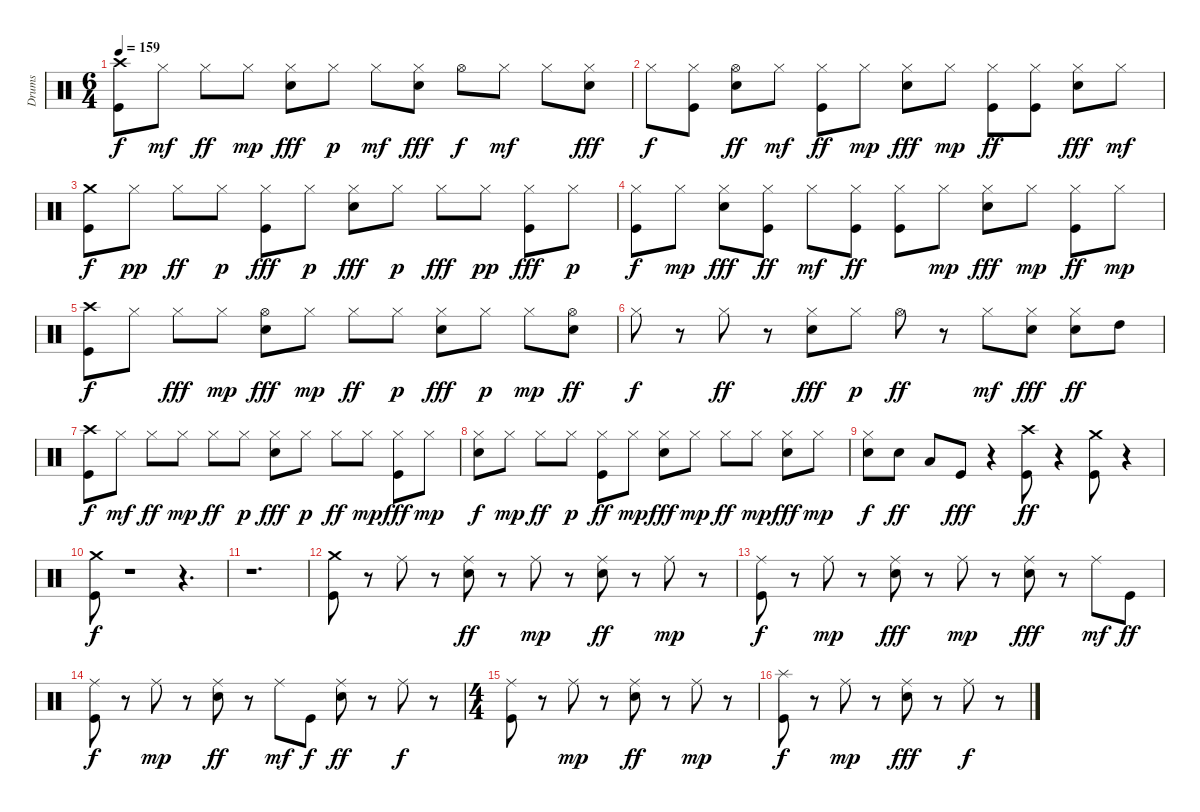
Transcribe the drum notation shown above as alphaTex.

\track ("Drums" "Drums") {instrument percussion}
\staff {score}
\articulation defaults
\ts (6 4)
\tempo 159
\clef neutral
\ks c
("Kick (hit)" "Crash high (hit)").8{dy f} "Hi-Hat (closed)".8{dy mf} "Hi-Hat (closed)".8{dy ff} "Hi-Hat (closed)".8{dy mp} ("Electric Snare (hit)" "Hi-Hat (closed)").8{dy fff} "Hi-Hat (closed)".8{dy p} "Hi-Hat (closed)".8{dy mf} ("Electric Snare (hit)" "Hi-Hat (closed)").8{dy fff} "Hi-Hat (open)".8{dy f} "Hi-Hat (closed)".8{dy mf} "Hi-Hat (closed)".8 ("Electric Snare (hit)" "Hi-Hat (closed)").8{dy fff} |
"Hi-Hat (closed)".8{dy f} ("Kick (hit)" "Hi-Hat (closed)").8 ("Electric Snare (hit)" "Hi-Hat (open)").8{dy ff} "Hi-Hat (closed)".8{dy mf} ("Kick (hit)" "Hi-Hat (closed)").8{dy ff} "Hi-Hat (closed)".8{dy mp} ("Electric Snare (hit)" "Hi-Hat (closed)").8{dy fff} "Hi-Hat (closed)".8{dy mp} ("Kick (hit)" "Hi-Hat (closed)").8{dy ff} ("Kick (hit)" "Hi-Hat (closed)").8 ("Electric Snare (hit)" "Hi-Hat (closed)").8{dy fff} "Hi-Hat (closed)".8{dy mf} |
("Kick (hit)" "Crash medium (hit)").8{dy f} "Hi-Hat (closed)".8{dy pp} "Hi-Hat (closed)".8{dy ff} "Hi-Hat (closed)".8{dy p} ("Kick (hit)" "Hi-Hat (closed)").8{dy fff} "Hi-Hat (closed)".8{dy p} ("Electric Snare (hit)" "Hi-Hat (closed)").8{dy fff} "Hi-Hat (closed)".8{dy p} "Hi-Hat (closed)".8{dy fff} "Hi-Hat (closed)".8{dy pp} ("Kick (hit)" "Hi-Hat (closed)").8{dy fff} "Hi-Hat (closed)".8{dy p} |
("Kick (hit)" "Hi-Hat (closed)").8{dy f} "Hi-Hat (closed)".8{dy mp} ("Electric Snare (hit)" "Hi-Hat (closed)").8{dy fff} ("Kick (hit)" "Hi-Hat (closed)").8{dy ff} "Hi-Hat (closed)".8{dy mf} ("Kick (hit)" "Hi-Hat (closed)").8{dy ff} ("Kick (hit)" "Hi-Hat (closed)").8 "Hi-Hat (closed)".8{dy mp} ("Electric Snare (hit)" "Hi-Hat (closed)").8{dy fff} "Hi-Hat (closed)".8{dy mp} ("Kick (hit)" "Hi-Hat (closed)").8{dy ff} "Hi-Hat (closed)".8{dy mp} |
("Kick (hit)" "Crash high (hit)").8{dy f} "Hi-Hat (closed)".8 "Hi-Hat (closed)".8{dy fff} "Hi-Hat (closed)".8{dy mp} ("Electric Snare (hit)" "Hi-Hat (open)").8{dy fff} "Hi-Hat (closed)".8{dy mp} "Hi-Hat (closed)".8{dy ff} "Hi-Hat (closed)".8{dy p} ("Electric Snare (hit)" "Hi-Hat (closed)").8{dy fff} "Hi-Hat (closed)".8{dy p} "Hi-Hat (closed)".8{dy mp} ("Electric Snare (hit)" "Hi-Hat (open)").8{dy ff} |
"Hi-Hat (closed)".8{dy f} r.8 "Hi-Hat (closed)".8{dy ff} r.8 ("Electric Snare (hit)" "Hi-Hat (closed)").8{dy fff} "Hi-Hat (closed)".8{dy p} "Hi-Hat (open)".8{dy ff} r.8 "Hi-Hat (closed)".8{dy mf} ("Electric Snare (hit)" "Hi-Hat (closed)").8{dy fff} ("Electric Snare (hit)" "Hi-Hat (closed)").8{dy ff} "High Tom (hit)".8 |
("Kick (hit)" "Crash high (hit)").8{dy f} "Hi-Hat (closed)".8{dy mf} "Hi-Hat (closed)".8{dy ff} "Hi-Hat (closed)".8{dy mp} "Hi-Hat (closed)".8{dy ff} "Hi-Hat (closed)".8{dy p} ("Electric Snare (hit)" "Hi-Hat (closed)").8{dy fff} "Hi-Hat (closed)".8{dy p} "Hi-Hat (closed)".8{dy ff} "Hi-Hat (closed)".8{dy mp} ("Kick (hit)" "Hi-Hat (closed)").8{dy fff} "Hi-Hat (closed)".8{dy mp} |
("Electric Snare (hit)" "Hi-Hat (closed)").8{dy f} "Hi-Hat (closed)".8{dy mp} "Hi-Hat (closed)".8{dy ff} "Hi-Hat (closed)".8{dy p} ("Kick (hit)" "Hi-Hat (closed)").8{dy ff} "Hi-Hat (closed)".8{dy mp} ("Electric Snare (hit)" "Hi-Hat (closed)").8{dy fff} "Hi-Hat (closed)".8{dy mp} "Hi-Hat (closed)".8{dy ff} "Hi-Hat (closed)".8{dy mp} ("Electric Snare (hit)" "Hi-Hat (closed)").8{dy fff} "Hi-Hat (closed)".8{dy mp} |
("Electric Snare (hit)" "Hi-Hat (closed)").8{dy f} "Electric Snare (hit)".8{dy ff} "Low Tom (hit)".8 "Kick (hit)".8{dy fff} r.4 ("Kick (hit)" "Crash high (hit)").8{dy ff} r.4 ("Kick (hit)" "Crash medium (hit)").8 r.4 |
("Kick (hit)" "Crash medium (hit)").8{dy f} r.1 r.4{d} |
r.1{d} |
("Kick (hit)" "Crash medium (hit)").8 r.8 "Ride (middle)".8 r.8 ("Electric Snare (hit)" "Ride (middle)").8{dy ff} r.8 "Ride (middle)".8{dy mp} r.8 ("Electric Snare (hit)" "Ride (middle)").8{dy ff} r.8 "Ride (middle)".8{dy mp} r.8 |
("Kick (hit)" "Ride (middle)").8{dy f} r.8 "Ride (middle)".8{dy mp} r.8 ("Electric Snare (hit)" "Ride (middle)").8{dy fff} r.8 "Ride (middle)".8{dy mp} r.8 ("Electric Snare (hit)" "Ride (middle)").8{dy fff} r.8 "Ride (middle)".8{dy mf} "Kick (hit)".8{dy ff} |
("Kick (hit)" "Ride (middle)").8{dy f} r.8 "Ride (middle)".8{dy mp} r.8 ("Electric Snare (hit)" "Ride (middle)").8{dy ff} r.8 "Ride (middle)".8{dy mf} "Kick (hit)".8{dy f} ("Electric Snare (hit)" "Ride (middle)").8{dy ff} r.8 "Ride (middle)".8{dy f} r.8 |
\ts (4 4)
("Kick (hit)" "Ride (middle)").8 r.8 "Ride (middle)".8{dy mp} r.8 ("Electric Snare (hit)" "Ride (middle)").8{dy ff} r.8 "Ride (middle)".8{dy mp} r.8 |
("Kick (hit)" "Splash (hit)").8{dy f} r.8 "Ride (middle)".8{dy mp} r.8 ("Electric Snare (hit)" "Ride (middle)").8{dy fff} r.8 "Ride (middle)".8{dy f} r.8
